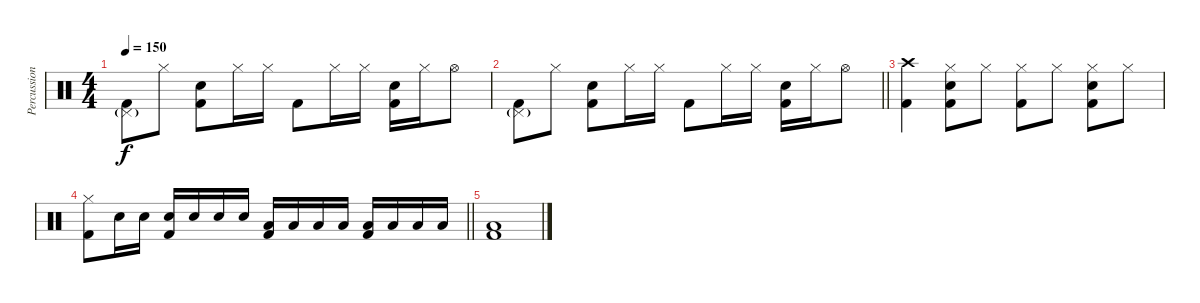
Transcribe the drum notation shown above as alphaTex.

\track ("Percussion" "Percussion") {instrument percussion}
\staff {score}
\articulation defaults
\ts (4 4)
\tempo 150
\clef neutral
\ks c
("Pedal Hi-Hat (hit)"{g} "Kick (hit) 2").8{dy f} "Hi-Hat (closed)".8 ("Electric Snare (hit)" "Kick (hit) 2").8 "Hi-Hat (closed)".16 "Hi-Hat (closed)".16 "Kick (hit) 2".8 "Hi-Hat (closed)".16 "Hi-Hat (closed)".16 ("Electric Snare (hit)" "Kick (hit) 2").16 "Hi-Hat (closed)".16 "Hi-Hat (open)".8 |
\barLineRight lightlight
("Pedal Hi-Hat (hit)"{g} "Kick (hit) 2").8 "Hi-Hat (closed)".8 ("Electric Snare (hit)" "Kick (hit) 2").8 "Hi-Hat (closed)".16 "Hi-Hat (closed)".16 "Kick (hit) 2".8 "Hi-Hat (closed)".16 "Hi-Hat (closed)".16 ("Electric Snare (hit)" "Kick (hit) 2").16 "Hi-Hat (closed)".16 "Hi-Hat (open)".8 |
("Crash high (hit)" "Kick (hit) 2").4 ("Hi-Hat (closed)" "Electric Snare (hit)" "Kick (hit) 2").8 "Hi-Hat (closed)".8 ("Hi-Hat (closed)" "Kick (hit) 2").8 "Hi-Hat (closed)".8 ("Hi-Hat (closed)" "Electric Snare (hit)" "Kick (hit) 2").8 "Hi-Hat (closed)".8 |
\barLineRight lightlight
("Hi-Hat (closed)" "Kick (hit) 2").8 "Electric Snare (hit)".16 "Electric Snare (hit)".16 ("Electric Snare (hit)" "Kick (hit) 2").16 "Electric Snare (hit)".16 "Electric Snare (hit)".16 "Electric Snare (hit)".16 ("Low Tom (hit)" "Kick (hit) 2").16 "Low Tom (hit)".16 "Low Tom (hit)".16 "Low Tom (hit)".16 ("Low Floor Tom (hit)" "Kick (hit) 2").16 "Low Floor Tom (hit)".16 "Low Floor Tom (hit)".16 "Low Floor Tom (hit)".16 |
("Low Floor Tom (hit)" "Kick (hit) 2").1
